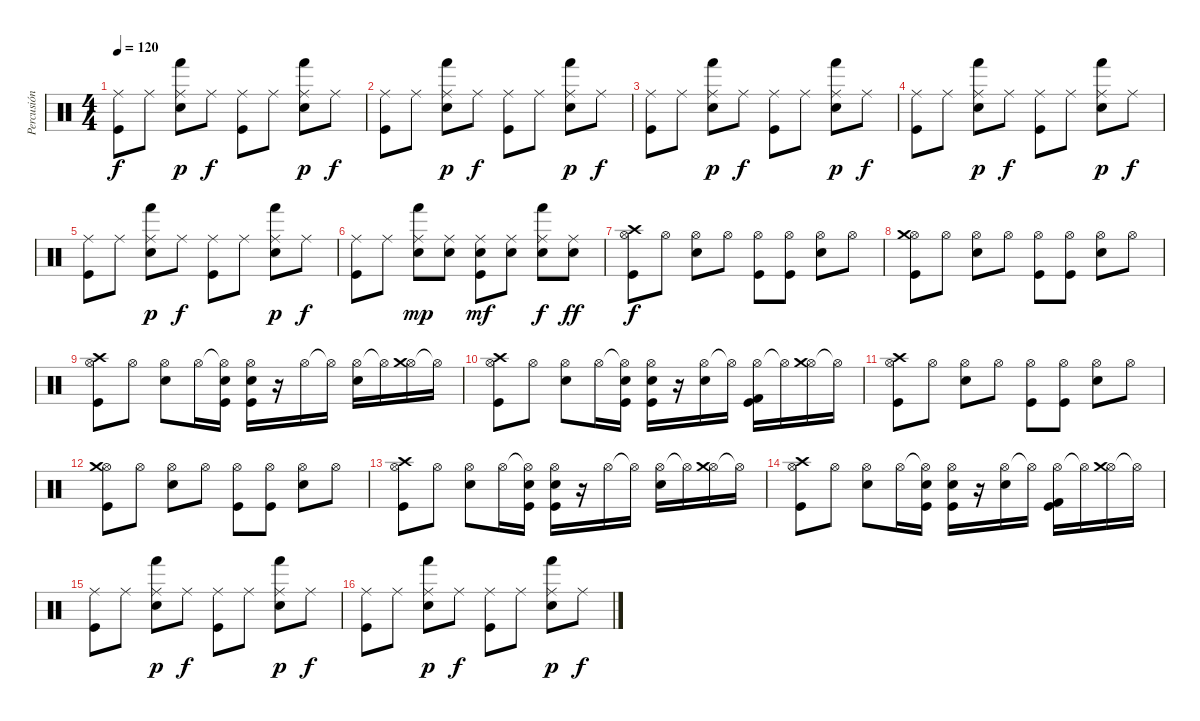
\track ("Percusión" "Percusión") {instrument percussion}
\staff {score}
\articulation defaults
\ts (4 4)
\tempo 120
\clef neutral
\ks c
("Ride (middle)" "Kick (hit)").8{dy f} "Ride (middle)".8 ("Ride (middle)" "Hand (hit)" "Electric Snare (hit)").8{dy p} "Ride (middle)".8{dy f} ("Ride (middle)" "Kick (hit)").8 "Ride (middle)".8 ("Ride (middle)" "Hand (hit)" "Electric Snare (hit)").8{dy p} "Ride (middle)".8{dy f} |
("Ride (middle)" "Kick (hit)").8 "Ride (middle)".8 ("Ride (middle)" "Hand (hit)" "Electric Snare (hit)").8{dy p} "Ride (middle)".8{dy f} ("Ride (middle)" "Kick (hit)").8 "Ride (middle)".8 ("Ride (middle)" "Hand (hit)" "Electric Snare (hit)").8{dy p} "Ride (middle)".8{dy f} |
("Ride (middle)" "Kick (hit)").8 "Ride (middle)".8 ("Ride (middle)" "Hand (hit)" "Electric Snare (hit)").8{dy p} "Ride (middle)".8{dy f} ("Ride (middle)" "Kick (hit)").8 "Ride (middle)".8 ("Ride (middle)" "Hand (hit)" "Electric Snare (hit)").8{dy p} "Ride (middle)".8{dy f} |
("Ride (middle)" "Kick (hit)").8 "Ride (middle)".8 ("Ride (middle)" "Hand (hit)" "Electric Snare (hit)").8{dy p} "Ride (middle)".8{dy f} ("Ride (middle)" "Kick (hit)").8 "Ride (middle)".8 ("Ride (middle)" "Hand (hit)" "Electric Snare (hit)").8{dy p} "Ride (middle)".8{dy f} |
("Ride (middle)" "Kick (hit)").8 "Ride (middle)".8 ("Ride (middle)" "Hand (hit)" "Electric Snare (hit)").8{dy p} "Ride (middle)".8{dy f} ("Ride (middle)" "Kick (hit)").8 "Ride (middle)".8 ("Ride (middle)" "Hand (hit)" "Electric Snare (hit)").8{dy p} "Ride (middle)".8{dy f} |
("Ride (middle)" "Kick (hit)").8 "Ride (middle)".8 ("Ride (middle)" "Hand (hit)" "Snare (hit) 2").8{dy mp} ("Ride (middle)" "Snare (hit) 2").8 ("Ride (middle)" "Snare (hit) 2" "Kick (hit)").8{dy mf} ("Ride (middle)" "Snare (hit) 2").8 ("Ride (middle)" "Hand (hit)" "Snare (hit) 2").8{dy f} ("Ride (middle)" "Snare (hit) 2").8{dy ff} |
("Hi-Hat (open)" "Crash high (hit)" "Kick (hit)").8{dy f} "Hi-Hat (open)".8 ("Hi-Hat (open)" "Snare (hit) 2").8 "Hi-Hat (open)".8 ("Hi-Hat (open)" "Kick (hit)").8 ("Hi-Hat (open)" "Kick (hit)").8 ("Hi-Hat (open)" "Snare (hit) 2").8 "Hi-Hat (open)".8 |
("Hi-Hat (open)" "Crash medium (hit)" "Kick (hit)").8 "Hi-Hat (open)".8 ("Hi-Hat (open)" "Snare (hit) 2").8 "Hi-Hat (open)".8 ("Hi-Hat (open)" "Kick (hit)").8 ("Hi-Hat (open)" "Kick (hit)").8 ("Hi-Hat (open)" "Snare (hit) 2").8 "Hi-Hat (open)".8 |
("Hi-Hat (open)" "Crash high (hit)" "Kick (hit)").8 "Hi-Hat (open)".8 ("Hi-Hat (open)" "Snare (hit) 2").8 "Hi-Hat (open)".16 ("Hi-Hat (open)"{t} "Snare (hit) 2" "Kick (hit)").16 ("Hi-Hat (open)" "Snare (hit) 2" "Kick (hit)").16 r.16 "Hi-Hat (open)".16 "Hi-Hat (open)"{t}.16 ("Hi-Hat (open)" "Snare (hit) 2").16 "Hi-Hat (open)"{t}.16 ("Hi-Hat (open)" "Crash medium (hit)").16 "Hi-Hat (open)"{t}.16 |
("Hi-Hat (open)" "Crash high (hit)" "Kick (hit)").8 "Hi-Hat (open)".8 ("Hi-Hat (open)" "Snare (hit) 2").8 "Hi-Hat (open)".16 ("Hi-Hat (open)"{t} "Snare (hit) 2" "Kick (hit)").16 ("Hi-Hat (open)" "Snare (hit) 2" "Kick (hit)").16 r.16 ("Hi-Hat (open)" "Snare (hit) 2").16 "Hi-Hat (open)"{t}.16 ("Hi-Hat (open)" "Kick (hit)" "Kick (hit) 2").16 "Hi-Hat (open)"{t}.16 ("Hi-Hat (open)" "Crash medium (hit)").16 "Hi-Hat (open)"{t}.16 |
("Hi-Hat (open)" "Crash high (hit)" "Kick (hit)").8 "Hi-Hat (open)".8 ("Hi-Hat (open)" "Snare (hit) 2").8 "Hi-Hat (open)".8 ("Hi-Hat (open)" "Kick (hit)").8 ("Hi-Hat (open)" "Kick (hit)").8 ("Hi-Hat (open)" "Snare (hit) 2").8 "Hi-Hat (open)".8 |
("Hi-Hat (open)" "Crash medium (hit)" "Kick (hit)").8 "Hi-Hat (open)".8 ("Hi-Hat (open)" "Snare (hit) 2").8 "Hi-Hat (open)".8 ("Hi-Hat (open)" "Kick (hit)").8 ("Hi-Hat (open)" "Kick (hit)").8 ("Hi-Hat (open)" "Snare (hit) 2").8 "Hi-Hat (open)".8 |
("Hi-Hat (open)" "Crash high (hit)" "Kick (hit)").8 "Hi-Hat (open)".8 ("Hi-Hat (open)" "Snare (hit) 2").8 "Hi-Hat (open)".16 ("Hi-Hat (open)"{t} "Snare (hit) 2" "Kick (hit)").16 ("Hi-Hat (open)" "Snare (hit) 2" "Kick (hit)").16 r.16 "Hi-Hat (open)".16 "Hi-Hat (open)"{t}.16 ("Hi-Hat (open)" "Snare (hit) 2").16 "Hi-Hat (open)"{t}.16 ("Hi-Hat (open)" "Crash medium (hit)").16 "Hi-Hat (open)"{t}.16 |
("Hi-Hat (open)" "Crash high (hit)" "Kick (hit)").8 "Hi-Hat (open)".8 ("Hi-Hat (open)" "Snare (hit) 2").8 "Hi-Hat (open)".16 ("Hi-Hat (open)"{t} "Snare (hit) 2" "Kick (hit)").16 ("Hi-Hat (open)" "Snare (hit) 2" "Kick (hit)").16 r.16 ("Hi-Hat (open)" "Snare (hit) 2").16 "Hi-Hat (open)"{t}.16 ("Hi-Hat (open)" "Kick (hit)" "Kick (hit) 2").16 "Hi-Hat (open)"{t}.16 ("Hi-Hat (open)" "Crash medium (hit)").16 "Hi-Hat (open)"{t}.16 |
("Ride (middle)" "Kick (hit)").8 "Ride (middle)".8 ("Ride (middle)" "Hand (hit)" "Electric Snare (hit)").8{dy p} "Ride (middle)".8{dy f} ("Ride (middle)" "Kick (hit)").8 "Ride (middle)".8 ("Ride (middle)" "Hand (hit)" "Electric Snare (hit)").8{dy p} "Ride (middle)".8{dy f} |
("Ride (middle)" "Kick (hit)").8 "Ride (middle)".8 ("Ride (middle)" "Hand (hit)" "Electric Snare (hit)").8{dy p} "Ride (middle)".8{dy f} ("Ride (middle)" "Kick (hit)").8 "Ride (middle)".8 ("Ride (middle)" "Hand (hit)" "Electric Snare (hit)").8{dy p} "Ride (middle)".8{dy f}
